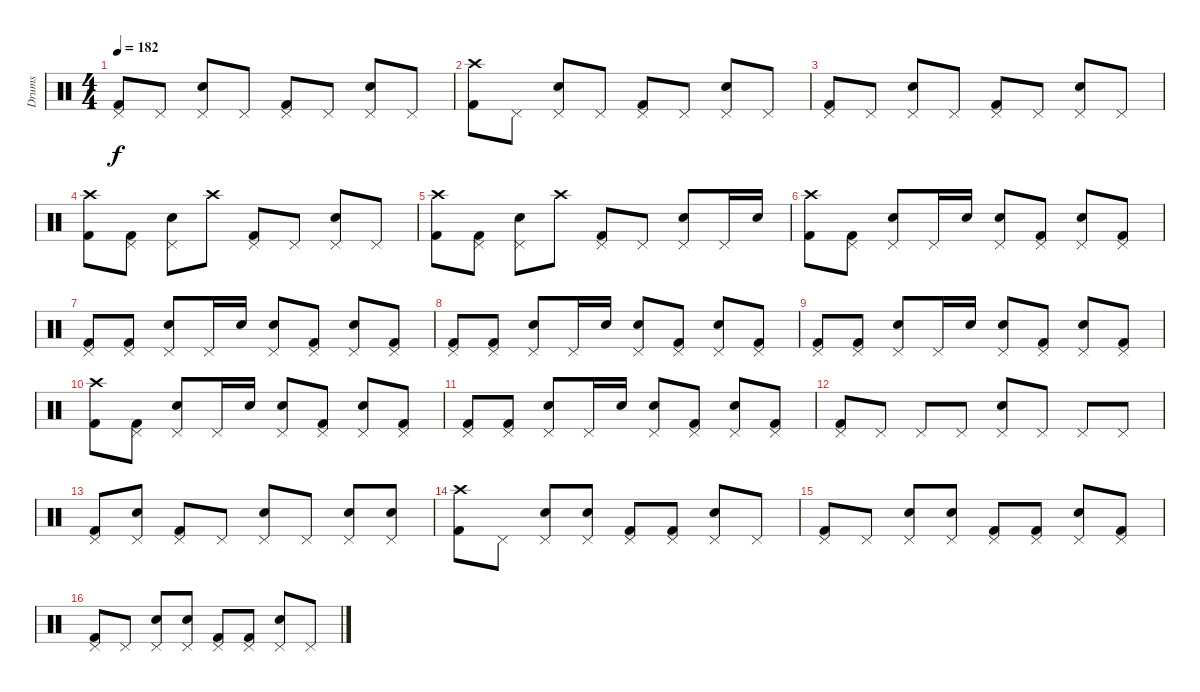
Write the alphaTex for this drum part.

\track ("Drums" "Drums") {instrument percussion}
\staff {score}
\articulation defaults
\ts (4 4)
\tempo 182
\clef neutral
\ks c
("Pedal Hi-Hat (hit)" "Kick (hit) 2").8{dy f} "Pedal Hi-Hat (hit)".8 ("Pedal Hi-Hat (hit)" "Electric Snare (hit)").8 "Pedal Hi-Hat (hit)".8 ("Pedal Hi-Hat (hit)" "Kick (hit) 2").8 "Pedal Hi-Hat (hit)".8 ("Pedal Hi-Hat (hit)" "Electric Snare (hit)").8 "Pedal Hi-Hat (hit)".8 |
("Crash high (hit)" "Kick (hit) 2").8 "Pedal Hi-Hat (hit)".8 ("Pedal Hi-Hat (hit)" "Electric Snare (hit)").8 "Pedal Hi-Hat (hit)".8 ("Pedal Hi-Hat (hit)" "Kick (hit) 2").8 "Pedal Hi-Hat (hit)".8 ("Pedal Hi-Hat (hit)" "Electric Snare (hit)").8 "Pedal Hi-Hat (hit)".8 |
("Pedal Hi-Hat (hit)" "Kick (hit) 2").8 "Pedal Hi-Hat (hit)".8 ("Pedal Hi-Hat (hit)" "Electric Snare (hit)").8 "Pedal Hi-Hat (hit)".8 ("Pedal Hi-Hat (hit)" "Kick (hit) 2").8 "Pedal Hi-Hat (hit)".8 ("Pedal Hi-Hat (hit)" "Electric Snare (hit)").8 "Pedal Hi-Hat (hit)".8 |
("Crash high (hit)" "Kick (hit) 2").8 ("Pedal Hi-Hat (hit)" "Kick (hit) 2").8 ("Pedal Hi-Hat (hit)" "Electric Snare (hit)").8 "Crash high (hit)".8 ("Pedal Hi-Hat (hit)" "Kick (hit) 2").8 "Pedal Hi-Hat (hit)".8 ("Pedal Hi-Hat (hit)" "Electric Snare (hit)").8 "Pedal Hi-Hat (hit)".8 |
("Crash high (hit)" "Kick (hit) 2").8 ("Pedal Hi-Hat (hit)" "Kick (hit) 2").8 ("Pedal Hi-Hat (hit)" "Electric Snare (hit)").8 "Crash high (hit)".8 ("Pedal Hi-Hat (hit)" "Kick (hit) 2").8 "Pedal Hi-Hat (hit)".8 ("Pedal Hi-Hat (hit)" "Electric Snare (hit)").8 "Pedal Hi-Hat (hit)".16 "Electric Snare (hit)".16 |
("Crash high (hit)" "Kick (hit) 2").8 ("Pedal Hi-Hat (hit)" "Kick (hit) 2").8 ("Pedal Hi-Hat (hit)" "Electric Snare (hit)").8 "Pedal Hi-Hat (hit)".16 "Electric Snare (hit)".16 ("Pedal Hi-Hat (hit)" "Electric Snare (hit)").8 ("Pedal Hi-Hat (hit)" "Kick (hit) 2").8 ("Pedal Hi-Hat (hit)" "Electric Snare (hit)").8 ("Pedal Hi-Hat (hit)" "Kick (hit) 2").8 |
("Pedal Hi-Hat (hit)" "Kick (hit) 2").8 ("Pedal Hi-Hat (hit)" "Kick (hit) 2").8 ("Pedal Hi-Hat (hit)" "Electric Snare (hit)").8 "Pedal Hi-Hat (hit)".16 "Electric Snare (hit)".16 ("Pedal Hi-Hat (hit)" "Electric Snare (hit)").8 ("Pedal Hi-Hat (hit)" "Kick (hit) 2").8 ("Pedal Hi-Hat (hit)" "Electric Snare (hit)").8 ("Pedal Hi-Hat (hit)" "Kick (hit) 2").8 |
("Pedal Hi-Hat (hit)" "Kick (hit) 2").8 ("Pedal Hi-Hat (hit)" "Kick (hit) 2").8 ("Pedal Hi-Hat (hit)" "Electric Snare (hit)").8 "Pedal Hi-Hat (hit)".16 "Electric Snare (hit)".16 ("Pedal Hi-Hat (hit)" "Electric Snare (hit)").8 ("Pedal Hi-Hat (hit)" "Kick (hit) 2").8 ("Pedal Hi-Hat (hit)" "Electric Snare (hit)").8 ("Pedal Hi-Hat (hit)" "Kick (hit) 2").8 |
("Pedal Hi-Hat (hit)" "Kick (hit) 2").8 ("Pedal Hi-Hat (hit)" "Kick (hit) 2").8 ("Pedal Hi-Hat (hit)" "Electric Snare (hit)").8 "Pedal Hi-Hat (hit)".16 "Electric Snare (hit)".16 ("Pedal Hi-Hat (hit)" "Electric Snare (hit)").8 ("Pedal Hi-Hat (hit)" "Kick (hit) 2").8 ("Pedal Hi-Hat (hit)" "Electric Snare (hit)").8 ("Pedal Hi-Hat (hit)" "Kick (hit) 2").8 |
("Crash high (hit)" "Kick (hit) 2").8 ("Pedal Hi-Hat (hit)" "Kick (hit) 2").8 ("Pedal Hi-Hat (hit)" "Electric Snare (hit)").8 "Pedal Hi-Hat (hit)".16 "Electric Snare (hit)".16 ("Pedal Hi-Hat (hit)" "Electric Snare (hit)").8 ("Pedal Hi-Hat (hit)" "Kick (hit) 2").8 ("Pedal Hi-Hat (hit)" "Electric Snare (hit)").8 ("Pedal Hi-Hat (hit)" "Kick (hit) 2").8 |
("Pedal Hi-Hat (hit)" "Kick (hit) 2").8 ("Pedal Hi-Hat (hit)" "Kick (hit) 2").8 ("Pedal Hi-Hat (hit)" "Electric Snare (hit)").8 "Pedal Hi-Hat (hit)".16 "Electric Snare (hit)".16 ("Pedal Hi-Hat (hit)" "Electric Snare (hit)").8 ("Pedal Hi-Hat (hit)" "Kick (hit) 2").8 ("Pedal Hi-Hat (hit)" "Electric Snare (hit)").8 ("Pedal Hi-Hat (hit)" "Kick (hit) 2").8 |
("Pedal Hi-Hat (hit)" "Kick (hit) 2").8 "Pedal Hi-Hat (hit)".8 "Pedal Hi-Hat (hit)".8 "Pedal Hi-Hat (hit)".8 ("Pedal Hi-Hat (hit)" "Electric Snare (hit)").8 "Pedal Hi-Hat (hit)".8 "Pedal Hi-Hat (hit)".8 "Pedal Hi-Hat (hit)".8 |
("Pedal Hi-Hat (hit)" "Kick (hit) 2").8 ("Pedal Hi-Hat (hit)" "Electric Snare (hit)").8 ("Pedal Hi-Hat (hit)" "Kick (hit) 2").8 "Pedal Hi-Hat (hit)".8 ("Pedal Hi-Hat (hit)" "Electric Snare (hit)").8 "Pedal Hi-Hat (hit)".8 ("Pedal Hi-Hat (hit)" "Electric Snare (hit)").8 ("Pedal Hi-Hat (hit)" "Electric Snare (hit)").8 |
("Crash high (hit)" "Kick (hit) 2").8 "Pedal Hi-Hat (hit)".8 ("Pedal Hi-Hat (hit)" "Electric Snare (hit)").8 ("Pedal Hi-Hat (hit)" "Electric Snare (hit)").8 ("Pedal Hi-Hat (hit)" "Kick (hit) 2").8 ("Pedal Hi-Hat (hit)" "Kick (hit) 2").8 ("Pedal Hi-Hat (hit)" "Electric Snare (hit)").8 "Pedal Hi-Hat (hit)".8 |
("Pedal Hi-Hat (hit)" "Kick (hit) 2").8 "Pedal Hi-Hat (hit)".8 ("Pedal Hi-Hat (hit)" "Electric Snare (hit)").8 ("Pedal Hi-Hat (hit)" "Electric Snare (hit)").8 ("Pedal Hi-Hat (hit)" "Kick (hit) 2").8 ("Pedal Hi-Hat (hit)" "Kick (hit) 2").8 ("Pedal Hi-Hat (hit)" "Electric Snare (hit)").8 ("Pedal Hi-Hat (hit)" "Kick (hit) 2").8 |
("Pedal Hi-Hat (hit)" "Kick (hit) 2").8 "Pedal Hi-Hat (hit)".8 ("Pedal Hi-Hat (hit)" "Electric Snare (hit)").8 ("Pedal Hi-Hat (hit)" "Electric Snare (hit)").8 ("Pedal Hi-Hat (hit)" "Kick (hit) 2").8 ("Pedal Hi-Hat (hit)" "Kick (hit) 2").8 ("Pedal Hi-Hat (hit)" "Electric Snare (hit)").8 "Pedal Hi-Hat (hit)".8
